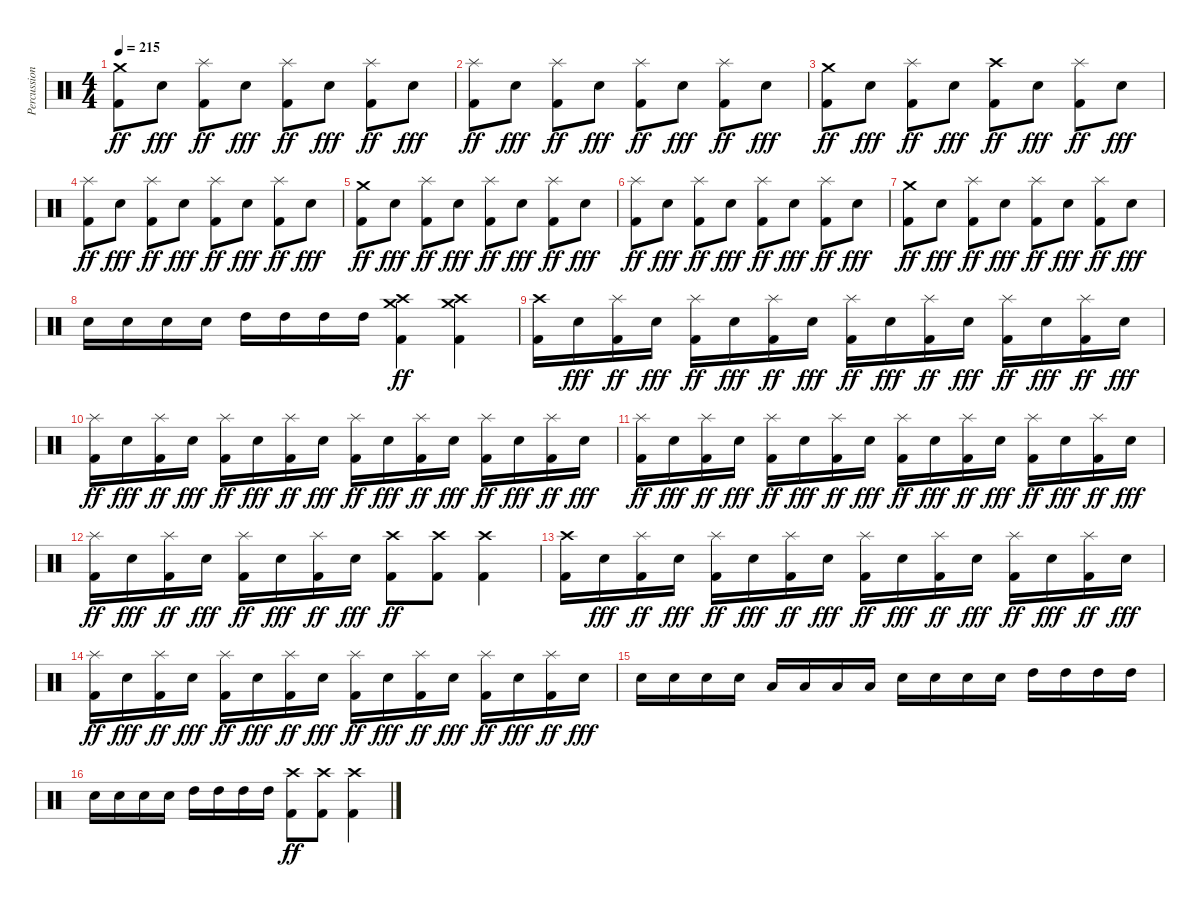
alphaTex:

\track ("Percussion" "Percussion") {instrument percussion}
\staff {score}
\articulation defaults
\ts (4 4)
\tempo 215
\clef neutral
\ks c
("Kick (hit) 2" "Crash medium (hit)").8{dy ff} "Electric Snare (hit)".8{dy fff} ("Kick (hit) 2" "Splash (hit)").8{dy ff} "Electric Snare (hit)".8{dy fff} ("Kick (hit) 2" "Splash (hit)").8{dy ff} "Electric Snare (hit)".8{dy fff} ("Kick (hit) 2" "Splash (hit)").8{dy ff} "Electric Snare (hit)".8{dy fff} |
("Kick (hit) 2" "Splash (hit)").8{dy ff} "Electric Snare (hit)".8{dy fff} ("Kick (hit) 2" "Splash (hit)").8{dy ff} "Electric Snare (hit)".8{dy fff} ("Kick (hit) 2" "Splash (hit)").8{dy ff} "Electric Snare (hit)".8{dy fff} ("Kick (hit) 2" "Splash (hit)").8{dy ff} "Electric Snare (hit)".8{dy fff} |
("Kick (hit) 2" "Crash medium (hit)").8{dy ff} "Electric Snare (hit)".8{dy fff} ("Kick (hit) 2" "Splash (hit)").8{dy ff} "Electric Snare (hit)".8{dy fff} ("Kick (hit) 2" "Crash high (hit)").8{dy ff} "Electric Snare (hit)".8{dy fff} ("Kick (hit) 2" "Splash (hit)").8{dy ff} "Electric Snare (hit)".8{dy fff} |
("Kick (hit) 2" "Splash (hit)").8{dy ff} "Electric Snare (hit)".8{dy fff} ("Kick (hit) 2" "Splash (hit)").8{dy ff} "Electric Snare (hit)".8{dy fff} ("Kick (hit) 2" "Splash (hit)").8{dy ff} "Electric Snare (hit)".8{dy fff} ("Kick (hit) 2" "Splash (hit)").8{dy ff} "Electric Snare (hit)".8{dy fff} |
("Kick (hit) 2" "Crash medium (hit)").8{dy ff} "Electric Snare (hit)".8{dy fff} ("Kick (hit) 2" "Splash (hit)").8{dy ff} "Electric Snare (hit)".8{dy fff} ("Kick (hit) 2" "Splash (hit)").8{dy ff} "Electric Snare (hit)".8{dy fff} ("Kick (hit) 2" "Splash (hit)").8{dy ff} "Electric Snare (hit)".8{dy fff} |
("Kick (hit) 2" "Splash (hit)").8{dy ff} "Electric Snare (hit)".8{dy fff} ("Kick (hit) 2" "Splash (hit)").8{dy ff} "Electric Snare (hit)".8{dy fff} ("Kick (hit) 2" "Splash (hit)").8{dy ff} "Electric Snare (hit)".8{dy fff} ("Kick (hit) 2" "Splash (hit)").8{dy ff} "Electric Snare (hit)".8{dy fff} |
("Kick (hit) 2" "Crash medium (hit)").8{dy ff} "Electric Snare (hit)".8{dy fff} ("Kick (hit) 2" "Splash (hit)").8{dy ff} "Electric Snare (hit)".8{dy fff} ("Kick (hit) 2" "Splash (hit)").8{dy ff} "Electric Snare (hit)".8{dy fff} ("Kick (hit) 2" "Splash (hit)").8{dy ff} "Electric Snare (hit)".8{dy fff} |
"Electric Snare (hit)".16 "Electric Snare (hit)".16 "Electric Snare (hit)".16 "Electric Snare (hit)".16 "High Tom (hit)".16 "High Tom (hit)".16 "High Tom (hit)".16 "High Tom (hit)".16 ("Kick (hit) 2" "Crash medium (hit)" "Crash high (hit)").4{dy ff} ("Kick (hit) 2" "Crash medium (hit)" "Crash high (hit)").4 |
("Kick (hit) 2" "Crash high (hit)").16 "Electric Snare (hit)".16{dy fff} ("Kick (hit) 2" "Splash (hit)").16{dy ff} "Electric Snare (hit)".16{dy fff} ("Kick (hit) 2" "Splash (hit)").16{dy ff} "Electric Snare (hit)".16{dy fff} ("Kick (hit) 2" "Splash (hit)").16{dy ff} "Electric Snare (hit)".16{dy fff} ("Kick (hit) 2" "Splash (hit)").16{dy ff} "Electric Snare (hit)".16{dy fff} ("Kick (hit) 2" "Splash (hit)").16{dy ff} "Electric Snare (hit)".16{dy fff} ("Kick (hit) 2" "Splash (hit)").16{dy ff} "Electric Snare (hit)".16{dy fff} ("Kick (hit) 2" "Splash (hit)").16{dy ff} "Electric Snare (hit)".16{dy fff} |
("Kick (hit) 2" "Splash (hit)").16{dy ff} "Electric Snare (hit)".16{dy fff} ("Kick (hit) 2" "Splash (hit)").16{dy ff} "Electric Snare (hit)".16{dy fff} ("Kick (hit) 2" "Splash (hit)").16{dy ff} "Electric Snare (hit)".16{dy fff} ("Kick (hit) 2" "Splash (hit)").16{dy ff} "Electric Snare (hit)".16{dy fff} ("Kick (hit) 2" "Splash (hit)").16{dy ff} "Electric Snare (hit)".16{dy fff} ("Kick (hit) 2" "Splash (hit)").16{dy ff} "Electric Snare (hit)".16{dy fff} ("Kick (hit) 2" "Splash (hit)").16{dy ff} "Electric Snare (hit)".16{dy fff} ("Kick (hit) 2" "Splash (hit)").16{dy ff} "Electric Snare (hit)".16{dy fff} |
("Kick (hit) 2" "Splash (hit)").16{dy ff} "Electric Snare (hit)".16{dy fff} ("Kick (hit) 2" "Splash (hit)").16{dy ff} "Electric Snare (hit)".16{dy fff} ("Kick (hit) 2" "Splash (hit)").16{dy ff} "Electric Snare (hit)".16{dy fff} ("Kick (hit) 2" "Splash (hit)").16{dy ff} "Electric Snare (hit)".16{dy fff} ("Kick (hit) 2" "Splash (hit)").16{dy ff} "Electric Snare (hit)".16{dy fff} ("Kick (hit) 2" "Splash (hit)").16{dy ff} "Electric Snare (hit)".16{dy fff} ("Kick (hit) 2" "Splash (hit)").16{dy ff} "Electric Snare (hit)".16{dy fff} ("Kick (hit) 2" "Splash (hit)").16{dy ff} "Electric Snare (hit)".16{dy fff} |
("Kick (hit) 2" "Splash (hit)").16{dy ff} "Electric Snare (hit)".16{dy fff} ("Kick (hit) 2" "Splash (hit)").16{dy ff} "Electric Snare (hit)".16{dy fff} ("Kick (hit) 2" "Splash (hit)").16{dy ff} "Electric Snare (hit)".16{dy fff} ("Kick (hit) 2" "Splash (hit)").16{dy ff} "Electric Snare (hit)".16{dy fff} ("Kick (hit) 2" "Crash high (hit)").8{dy ff} ("Kick (hit) 2" "Crash high (hit)").8 ("Kick (hit) 2" "Crash high (hit)").4 |
("Kick (hit) 2" "Crash high (hit)").16 "Electric Snare (hit)".16{dy fff} ("Kick (hit) 2" "Splash (hit)").16{dy ff} "Electric Snare (hit)".16{dy fff} ("Kick (hit) 2" "Splash (hit)").16{dy ff} "Electric Snare (hit)".16{dy fff} ("Kick (hit) 2" "Splash (hit)").16{dy ff} "Electric Snare (hit)".16{dy fff} ("Kick (hit) 2" "Splash (hit)").16{dy ff} "Electric Snare (hit)".16{dy fff} ("Kick (hit) 2" "Splash (hit)").16{dy ff} "Electric Snare (hit)".16{dy fff} ("Kick (hit) 2" "Splash (hit)").16{dy ff} "Electric Snare (hit)".16{dy fff} ("Kick (hit) 2" "Splash (hit)").16{dy ff} "Electric Snare (hit)".16{dy fff} |
("Kick (hit) 2" "Splash (hit)").16{dy ff} "Electric Snare (hit)".16{dy fff} ("Kick (hit) 2" "Splash (hit)").16{dy ff} "Electric Snare (hit)".16{dy fff} ("Kick (hit) 2" "Splash (hit)").16{dy ff} "Electric Snare (hit)".16{dy fff} ("Kick (hit) 2" "Splash (hit)").16{dy ff} "Electric Snare (hit)".16{dy fff} ("Kick (hit) 2" "Splash (hit)").16{dy ff} "Electric Snare (hit)".16{dy fff} ("Kick (hit) 2" "Splash (hit)").16{dy ff} "Electric Snare (hit)".16{dy fff} ("Kick (hit) 2" "Splash (hit)").16{dy ff} "Electric Snare (hit)".16{dy fff} ("Kick (hit) 2" "Splash (hit)").16{dy ff} "Electric Snare (hit)".16{dy fff} |
"Electric Snare (hit)".16 "Electric Snare (hit)".16 "Electric Snare (hit)".16 "Electric Snare (hit)".16 "Low Tom (hit)".16 "Low Tom (hit)".16 "Low Tom (hit)".16 "Low Tom (hit)".16 "Electric Snare (hit)".16 "Electric Snare (hit)".16 "Electric Snare (hit)".16 "Electric Snare (hit)".16 "High Tom (hit)".16 "High Tom (hit)".16 "High Tom (hit)".16 "High Tom (hit)".16 |
"Electric Snare (hit)".16 "Electric Snare (hit)".16 "Electric Snare (hit)".16 "Electric Snare (hit)".16 "High Tom (hit)".16 "High Tom (hit)".16 "High Tom (hit)".16 "High Tom (hit)".16 ("Kick (hit) 2" "Crash high (hit)").8{dy ff} ("Kick (hit) 2" "Crash high (hit)").8 ("Kick (hit) 2" "Crash high (hit)").4
